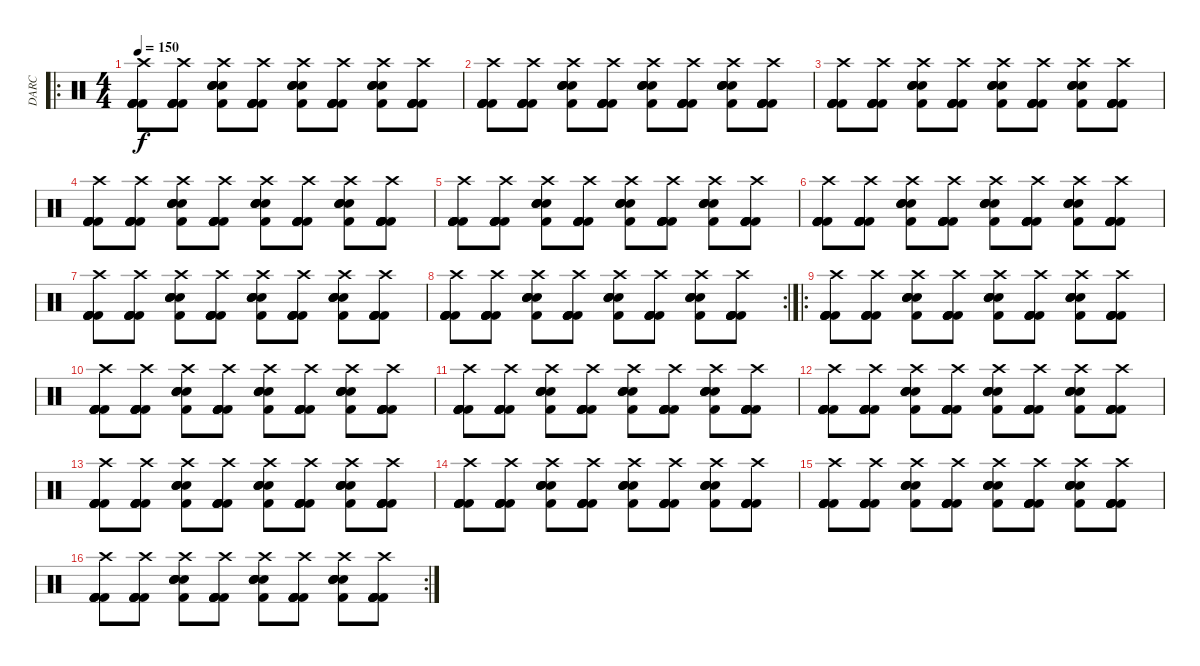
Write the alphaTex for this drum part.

\track ("DARC" "DARC") {instrument percussion}
\staff {score}
\articulation defaults
\ro
\ts (4 4)
\tempo 150
\clef neutral
\ks c
("Kick (hit) 2" "Kick (hit) 2" "Kick (hit) 2" "Kick (hit) 2" "Crash high (hit)" "Kick (hit) 2").8{dy f} ("Kick (hit) 2" "Kick (hit) 2" "Kick (hit) 2" "Kick (hit) 2" "Crash high (hit)" "Kick (hit) 2").8 ("Kick (hit) 2" "Electric Snare (hit)" "Electric Snare (hit)" "Electric Snare (hit)" "Crash high (hit)" "Electric Snare (hit)").8 ("Kick (hit) 2" "Kick (hit) 2" "Kick (hit) 2" "Kick (hit) 2" "Crash high (hit)" "Kick (hit) 2").8 ("Kick (hit) 2" "Electric Snare (hit)" "Electric Snare (hit)" "Electric Snare (hit)" "Crash high (hit)" "Electric Snare (hit)").8 ("Kick (hit) 2" "Kick (hit) 2" "Kick (hit) 2" "Kick (hit) 2" "Crash high (hit)" "Kick (hit) 2").8 ("Kick (hit) 2" "Electric Snare (hit)" "Electric Snare (hit)" "Electric Snare (hit)" "Crash high (hit)" "Electric Snare (hit)").8 ("Kick (hit) 2" "Kick (hit) 2" "Kick (hit) 2" "Kick (hit) 2" "Crash high (hit)" "Kick (hit) 2").8 |
("Kick (hit) 2" "Kick (hit) 2" "Kick (hit) 2" "Kick (hit) 2" "Crash high (hit)" "Kick (hit) 2").8 ("Kick (hit) 2" "Kick (hit) 2" "Kick (hit) 2" "Kick (hit) 2" "Crash high (hit)" "Kick (hit) 2").8 ("Kick (hit) 2" "Electric Snare (hit)" "Electric Snare (hit)" "Electric Snare (hit)" "Crash high (hit)" "Electric Snare (hit)").8 ("Kick (hit) 2" "Kick (hit) 2" "Kick (hit) 2" "Kick (hit) 2" "Crash high (hit)" "Kick (hit) 2").8 ("Kick (hit) 2" "Electric Snare (hit)" "Electric Snare (hit)" "Electric Snare (hit)" "Crash high (hit)" "Electric Snare (hit)").8 ("Kick (hit) 2" "Kick (hit) 2" "Kick (hit) 2" "Kick (hit) 2" "Crash high (hit)" "Kick (hit) 2").8 ("Kick (hit) 2" "Electric Snare (hit)" "Electric Snare (hit)" "Electric Snare (hit)" "Crash high (hit)" "Electric Snare (hit)").8 ("Kick (hit) 2" "Kick (hit) 2" "Kick (hit) 2" "Kick (hit) 2" "Crash high (hit)" "Kick (hit) 2").8 |
("Kick (hit) 2" "Kick (hit) 2" "Kick (hit) 2" "Kick (hit) 2" "Crash high (hit)" "Kick (hit) 2").8 ("Kick (hit) 2" "Kick (hit) 2" "Kick (hit) 2" "Kick (hit) 2" "Crash high (hit)" "Kick (hit) 2").8 ("Kick (hit) 2" "Electric Snare (hit)" "Electric Snare (hit)" "Electric Snare (hit)" "Crash high (hit)" "Electric Snare (hit)").8 ("Kick (hit) 2" "Kick (hit) 2" "Kick (hit) 2" "Kick (hit) 2" "Crash high (hit)" "Kick (hit) 2").8 ("Kick (hit) 2" "Electric Snare (hit)" "Electric Snare (hit)" "Electric Snare (hit)" "Crash high (hit)" "Electric Snare (hit)").8 ("Kick (hit) 2" "Kick (hit) 2" "Kick (hit) 2" "Kick (hit) 2" "Crash high (hit)" "Kick (hit) 2").8 ("Kick (hit) 2" "Electric Snare (hit)" "Electric Snare (hit)" "Electric Snare (hit)" "Crash high (hit)" "Electric Snare (hit)").8 ("Kick (hit) 2" "Kick (hit) 2" "Kick (hit) 2" "Kick (hit) 2" "Crash high (hit)" "Kick (hit) 2").8 |
("Kick (hit) 2" "Kick (hit) 2" "Kick (hit) 2" "Kick (hit) 2" "Crash high (hit)" "Kick (hit) 2").8 ("Kick (hit) 2" "Kick (hit) 2" "Kick (hit) 2" "Kick (hit) 2" "Crash high (hit)" "Kick (hit) 2").8 ("Kick (hit) 2" "Electric Snare (hit)" "Electric Snare (hit)" "Electric Snare (hit)" "Crash high (hit)" "Electric Snare (hit)").8 ("Kick (hit) 2" "Kick (hit) 2" "Kick (hit) 2" "Kick (hit) 2" "Crash high (hit)" "Kick (hit) 2").8 ("Kick (hit) 2" "Electric Snare (hit)" "Electric Snare (hit)" "Electric Snare (hit)" "Crash high (hit)" "Electric Snare (hit)").8 ("Kick (hit) 2" "Kick (hit) 2" "Kick (hit) 2" "Kick (hit) 2" "Crash high (hit)" "Kick (hit) 2").8 ("Kick (hit) 2" "Electric Snare (hit)" "Electric Snare (hit)" "Electric Snare (hit)" "Crash high (hit)" "Electric Snare (hit)").8 ("Kick (hit) 2" "Kick (hit) 2" "Kick (hit) 2" "Kick (hit) 2" "Crash high (hit)" "Kick (hit) 2").8 |
("Kick (hit) 2" "Kick (hit) 2" "Kick (hit) 2" "Kick (hit) 2" "Crash high (hit)" "Kick (hit) 2").8 ("Kick (hit) 2" "Kick (hit) 2" "Kick (hit) 2" "Kick (hit) 2" "Crash high (hit)" "Kick (hit) 2").8 ("Kick (hit) 2" "Electric Snare (hit)" "Electric Snare (hit)" "Electric Snare (hit)" "Crash high (hit)" "Electric Snare (hit)").8 ("Kick (hit) 2" "Kick (hit) 2" "Kick (hit) 2" "Kick (hit) 2" "Crash high (hit)" "Kick (hit) 2").8 ("Kick (hit) 2" "Electric Snare (hit)" "Electric Snare (hit)" "Electric Snare (hit)" "Crash high (hit)" "Electric Snare (hit)").8 ("Kick (hit) 2" "Kick (hit) 2" "Kick (hit) 2" "Kick (hit) 2" "Crash high (hit)" "Kick (hit) 2").8 ("Kick (hit) 2" "Electric Snare (hit)" "Electric Snare (hit)" "Electric Snare (hit)" "Crash high (hit)" "Electric Snare (hit)").8 ("Kick (hit) 2" "Kick (hit) 2" "Kick (hit) 2" "Kick (hit) 2" "Crash high (hit)" "Kick (hit) 2").8 |
("Kick (hit) 2" "Kick (hit) 2" "Kick (hit) 2" "Kick (hit) 2" "Crash high (hit)" "Kick (hit) 2").8 ("Kick (hit) 2" "Kick (hit) 2" "Kick (hit) 2" "Kick (hit) 2" "Crash high (hit)" "Kick (hit) 2").8 ("Kick (hit) 2" "Electric Snare (hit)" "Electric Snare (hit)" "Electric Snare (hit)" "Crash high (hit)" "Electric Snare (hit)").8 ("Kick (hit) 2" "Kick (hit) 2" "Kick (hit) 2" "Kick (hit) 2" "Crash high (hit)" "Kick (hit) 2").8 ("Kick (hit) 2" "Electric Snare (hit)" "Electric Snare (hit)" "Electric Snare (hit)" "Crash high (hit)" "Electric Snare (hit)").8 ("Kick (hit) 2" "Kick (hit) 2" "Kick (hit) 2" "Kick (hit) 2" "Crash high (hit)" "Kick (hit) 2").8 ("Kick (hit) 2" "Electric Snare (hit)" "Electric Snare (hit)" "Electric Snare (hit)" "Crash high (hit)" "Electric Snare (hit)").8 ("Kick (hit) 2" "Kick (hit) 2" "Kick (hit) 2" "Kick (hit) 2" "Crash high (hit)" "Kick (hit) 2").8 |
("Kick (hit) 2" "Kick (hit) 2" "Kick (hit) 2" "Kick (hit) 2" "Crash high (hit)" "Kick (hit) 2").8 ("Kick (hit) 2" "Kick (hit) 2" "Kick (hit) 2" "Kick (hit) 2" "Crash high (hit)" "Kick (hit) 2").8 ("Kick (hit) 2" "Electric Snare (hit)" "Electric Snare (hit)" "Electric Snare (hit)" "Crash high (hit)" "Electric Snare (hit)").8 ("Kick (hit) 2" "Kick (hit) 2" "Kick (hit) 2" "Kick (hit) 2" "Crash high (hit)" "Kick (hit) 2").8 ("Kick (hit) 2" "Electric Snare (hit)" "Electric Snare (hit)" "Electric Snare (hit)" "Crash high (hit)" "Electric Snare (hit)").8 ("Kick (hit) 2" "Kick (hit) 2" "Kick (hit) 2" "Kick (hit) 2" "Crash high (hit)" "Kick (hit) 2").8 ("Kick (hit) 2" "Electric Snare (hit)" "Electric Snare (hit)" "Electric Snare (hit)" "Crash high (hit)" "Electric Snare (hit)").8 ("Kick (hit) 2" "Kick (hit) 2" "Kick (hit) 2" "Kick (hit) 2" "Crash high (hit)" "Kick (hit) 2").8 |
\rc 2
("Kick (hit) 2" "Kick (hit) 2" "Kick (hit) 2" "Kick (hit) 2" "Crash high (hit)" "Kick (hit) 2").8 ("Kick (hit) 2" "Kick (hit) 2" "Kick (hit) 2" "Kick (hit) 2" "Crash high (hit)" "Kick (hit) 2").8 ("Kick (hit) 2" "Electric Snare (hit)" "Electric Snare (hit)" "Electric Snare (hit)" "Crash high (hit)" "Electric Snare (hit)").8 ("Kick (hit) 2" "Kick (hit) 2" "Kick (hit) 2" "Kick (hit) 2" "Crash high (hit)" "Kick (hit) 2").8 ("Kick (hit) 2" "Electric Snare (hit)" "Electric Snare (hit)" "Electric Snare (hit)" "Crash high (hit)" "Electric Snare (hit)").8 ("Kick (hit) 2" "Kick (hit) 2" "Kick (hit) 2" "Kick (hit) 2" "Crash high (hit)" "Kick (hit) 2").8 ("Kick (hit) 2" "Electric Snare (hit)" "Electric Snare (hit)" "Electric Snare (hit)" "Crash high (hit)" "Electric Snare (hit)").8 ("Kick (hit) 2" "Kick (hit) 2" "Kick (hit) 2" "Kick (hit) 2" "Crash high (hit)" "Kick (hit) 2").8 |
\ro
("Kick (hit) 2" "Kick (hit) 2" "Kick (hit) 2" "Kick (hit) 2" "Crash high (hit)" "Kick (hit) 2").8 ("Kick (hit) 2" "Kick (hit) 2" "Kick (hit) 2" "Kick (hit) 2" "Crash high (hit)" "Kick (hit) 2").8 ("Kick (hit) 2" "Electric Snare (hit)" "Electric Snare (hit)" "Electric Snare (hit)" "Crash high (hit)" "Electric Snare (hit)").8 ("Kick (hit) 2" "Kick (hit) 2" "Kick (hit) 2" "Kick (hit) 2" "Crash high (hit)" "Kick (hit) 2").8 ("Kick (hit) 2" "Electric Snare (hit)" "Electric Snare (hit)" "Electric Snare (hit)" "Crash high (hit)" "Electric Snare (hit)").8 ("Kick (hit) 2" "Kick (hit) 2" "Kick (hit) 2" "Kick (hit) 2" "Crash high (hit)" "Kick (hit) 2").8 ("Kick (hit) 2" "Electric Snare (hit)" "Electric Snare (hit)" "Electric Snare (hit)" "Crash high (hit)" "Electric Snare (hit)").8 ("Kick (hit) 2" "Kick (hit) 2" "Kick (hit) 2" "Kick (hit) 2" "Crash high (hit)" "Kick (hit) 2").8 |
("Kick (hit) 2" "Kick (hit) 2" "Kick (hit) 2" "Kick (hit) 2" "Crash high (hit)" "Kick (hit) 2").8 ("Kick (hit) 2" "Kick (hit) 2" "Kick (hit) 2" "Kick (hit) 2" "Crash high (hit)" "Kick (hit) 2").8 ("Kick (hit) 2" "Electric Snare (hit)" "Electric Snare (hit)" "Electric Snare (hit)" "Crash high (hit)" "Electric Snare (hit)").8 ("Kick (hit) 2" "Kick (hit) 2" "Kick (hit) 2" "Kick (hit) 2" "Crash high (hit)" "Kick (hit) 2").8 ("Kick (hit) 2" "Electric Snare (hit)" "Electric Snare (hit)" "Electric Snare (hit)" "Crash high (hit)" "Electric Snare (hit)").8 ("Kick (hit) 2" "Kick (hit) 2" "Kick (hit) 2" "Kick (hit) 2" "Crash high (hit)" "Kick (hit) 2").8 ("Kick (hit) 2" "Electric Snare (hit)" "Electric Snare (hit)" "Electric Snare (hit)" "Crash high (hit)" "Electric Snare (hit)").8 ("Kick (hit) 2" "Kick (hit) 2" "Kick (hit) 2" "Kick (hit) 2" "Crash high (hit)" "Kick (hit) 2").8 |
("Kick (hit) 2" "Kick (hit) 2" "Kick (hit) 2" "Kick (hit) 2" "Crash high (hit)" "Kick (hit) 2").8 ("Kick (hit) 2" "Kick (hit) 2" "Kick (hit) 2" "Kick (hit) 2" "Crash high (hit)" "Kick (hit) 2").8 ("Kick (hit) 2" "Electric Snare (hit)" "Electric Snare (hit)" "Electric Snare (hit)" "Crash high (hit)" "Electric Snare (hit)").8 ("Kick (hit) 2" "Kick (hit) 2" "Kick (hit) 2" "Kick (hit) 2" "Crash high (hit)" "Kick (hit) 2").8 ("Kick (hit) 2" "Electric Snare (hit)" "Electric Snare (hit)" "Electric Snare (hit)" "Crash high (hit)" "Electric Snare (hit)").8 ("Kick (hit) 2" "Kick (hit) 2" "Kick (hit) 2" "Kick (hit) 2" "Crash high (hit)" "Kick (hit) 2").8 ("Kick (hit) 2" "Electric Snare (hit)" "Electric Snare (hit)" "Electric Snare (hit)" "Crash high (hit)" "Electric Snare (hit)").8 ("Kick (hit) 2" "Kick (hit) 2" "Kick (hit) 2" "Kick (hit) 2" "Crash high (hit)" "Kick (hit) 2").8 |
("Kick (hit) 2" "Kick (hit) 2" "Kick (hit) 2" "Kick (hit) 2" "Crash high (hit)" "Kick (hit) 2").8 ("Kick (hit) 2" "Kick (hit) 2" "Kick (hit) 2" "Kick (hit) 2" "Crash high (hit)" "Kick (hit) 2").8 ("Kick (hit) 2" "Electric Snare (hit)" "Electric Snare (hit)" "Electric Snare (hit)" "Crash high (hit)" "Electric Snare (hit)").8 ("Kick (hit) 2" "Kick (hit) 2" "Kick (hit) 2" "Kick (hit) 2" "Crash high (hit)" "Kick (hit) 2").8 ("Kick (hit) 2" "Electric Snare (hit)" "Electric Snare (hit)" "Electric Snare (hit)" "Crash high (hit)" "Electric Snare (hit)").8 ("Kick (hit) 2" "Kick (hit) 2" "Kick (hit) 2" "Kick (hit) 2" "Crash high (hit)" "Kick (hit) 2").8 ("Kick (hit) 2" "Electric Snare (hit)" "Electric Snare (hit)" "Electric Snare (hit)" "Crash high (hit)" "Electric Snare (hit)").8 ("Kick (hit) 2" "Kick (hit) 2" "Kick (hit) 2" "Kick (hit) 2" "Crash high (hit)" "Kick (hit) 2").8 |
("Kick (hit) 2" "Kick (hit) 2" "Kick (hit) 2" "Kick (hit) 2" "Crash high (hit)" "Kick (hit) 2").8 ("Kick (hit) 2" "Kick (hit) 2" "Kick (hit) 2" "Kick (hit) 2" "Crash high (hit)" "Kick (hit) 2").8 ("Kick (hit) 2" "Electric Snare (hit)" "Electric Snare (hit)" "Electric Snare (hit)" "Crash high (hit)" "Electric Snare (hit)").8 ("Kick (hit) 2" "Kick (hit) 2" "Kick (hit) 2" "Kick (hit) 2" "Crash high (hit)" "Kick (hit) 2").8 ("Kick (hit) 2" "Electric Snare (hit)" "Electric Snare (hit)" "Electric Snare (hit)" "Crash high (hit)" "Electric Snare (hit)").8 ("Kick (hit) 2" "Kick (hit) 2" "Kick (hit) 2" "Kick (hit) 2" "Crash high (hit)" "Kick (hit) 2").8 ("Kick (hit) 2" "Electric Snare (hit)" "Electric Snare (hit)" "Electric Snare (hit)" "Crash high (hit)" "Electric Snare (hit)").8 ("Kick (hit) 2" "Kick (hit) 2" "Kick (hit) 2" "Kick (hit) 2" "Crash high (hit)" "Kick (hit) 2").8 |
("Kick (hit) 2" "Kick (hit) 2" "Kick (hit) 2" "Kick (hit) 2" "Crash high (hit)" "Kick (hit) 2").8 ("Kick (hit) 2" "Kick (hit) 2" "Kick (hit) 2" "Kick (hit) 2" "Crash high (hit)" "Kick (hit) 2").8 ("Kick (hit) 2" "Electric Snare (hit)" "Electric Snare (hit)" "Electric Snare (hit)" "Crash high (hit)" "Electric Snare (hit)").8 ("Kick (hit) 2" "Kick (hit) 2" "Kick (hit) 2" "Kick (hit) 2" "Crash high (hit)" "Kick (hit) 2").8 ("Kick (hit) 2" "Electric Snare (hit)" "Electric Snare (hit)" "Electric Snare (hit)" "Crash high (hit)" "Electric Snare (hit)").8 ("Kick (hit) 2" "Kick (hit) 2" "Kick (hit) 2" "Kick (hit) 2" "Crash high (hit)" "Kick (hit) 2").8 ("Kick (hit) 2" "Electric Snare (hit)" "Electric Snare (hit)" "Electric Snare (hit)" "Crash high (hit)" "Electric Snare (hit)").8 ("Kick (hit) 2" "Kick (hit) 2" "Kick (hit) 2" "Kick (hit) 2" "Crash high (hit)" "Kick (hit) 2").8 |
("Kick (hit) 2" "Kick (hit) 2" "Kick (hit) 2" "Kick (hit) 2" "Crash high (hit)" "Kick (hit) 2").8 ("Kick (hit) 2" "Kick (hit) 2" "Kick (hit) 2" "Kick (hit) 2" "Crash high (hit)" "Kick (hit) 2").8 ("Kick (hit) 2" "Electric Snare (hit)" "Electric Snare (hit)" "Electric Snare (hit)" "Crash high (hit)" "Electric Snare (hit)").8 ("Kick (hit) 2" "Kick (hit) 2" "Kick (hit) 2" "Kick (hit) 2" "Crash high (hit)" "Kick (hit) 2").8 ("Kick (hit) 2" "Electric Snare (hit)" "Electric Snare (hit)" "Electric Snare (hit)" "Crash high (hit)" "Electric Snare (hit)").8 ("Kick (hit) 2" "Kick (hit) 2" "Kick (hit) 2" "Kick (hit) 2" "Crash high (hit)" "Kick (hit) 2").8 ("Kick (hit) 2" "Electric Snare (hit)" "Electric Snare (hit)" "Electric Snare (hit)" "Crash high (hit)" "Electric Snare (hit)").8 ("Kick (hit) 2" "Kick (hit) 2" "Kick (hit) 2" "Kick (hit) 2" "Crash high (hit)" "Kick (hit) 2").8 |
\rc 2
("Kick (hit) 2" "Kick (hit) 2" "Kick (hit) 2" "Kick (hit) 2" "Crash high (hit)" "Kick (hit) 2").8 ("Kick (hit) 2" "Kick (hit) 2" "Kick (hit) 2" "Kick (hit) 2" "Crash high (hit)" "Kick (hit) 2").8 ("Kick (hit) 2" "Electric Snare (hit)" "Electric Snare (hit)" "Electric Snare (hit)" "Crash high (hit)" "Electric Snare (hit)").8 ("Kick (hit) 2" "Kick (hit) 2" "Kick (hit) 2" "Kick (hit) 2" "Crash high (hit)" "Kick (hit) 2").8 ("Kick (hit) 2" "Electric Snare (hit)" "Electric Snare (hit)" "Electric Snare (hit)" "Crash high (hit)" "Electric Snare (hit)").8 ("Kick (hit) 2" "Kick (hit) 2" "Kick (hit) 2" "Kick (hit) 2" "Crash high (hit)" "Kick (hit) 2").8 ("Kick (hit) 2" "Electric Snare (hit)" "Electric Snare (hit)" "Electric Snare (hit)" "Crash high (hit)" "Electric Snare (hit)").8 ("Kick (hit) 2" "Kick (hit) 2" "Kick (hit) 2" "Kick (hit) 2" "Crash high (hit)" "Kick (hit) 2").8
